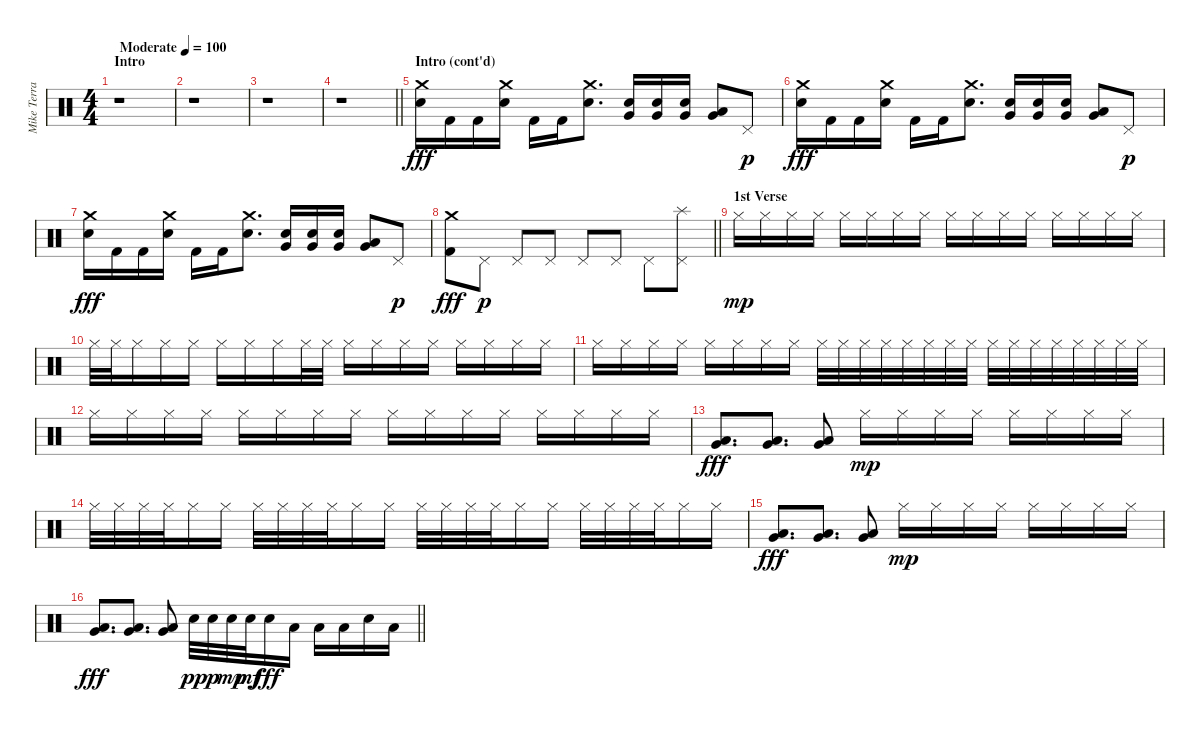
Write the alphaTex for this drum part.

\track ("Mike Terrana" "Mike Terra") {instrument percussion}
\staff {score}
\articulation defaults
\ts (4 4)
\section ("" "Intro")
\tempo (100 "Moderate")
\clef neutral
\ks c
r.1{dy fff} |
r.1 |
r.1 |
\barLineRight lightlight
r.1 |
\section ("" "Intro (cont'd)")
("Crash medium (hit)" "Snare (hit) 2").16 "Kick (hit) 2".16 "Kick (hit) 2".16 ("Crash medium (hit)" "Snare (hit) 2").16 "Kick (hit) 2".16 "Kick (hit) 2".16 ("Crash medium (hit)" "Snare (hit) 2").8{d} ("Snare (hit) 2" "Very Low Tom (hit)").16 ("Snare (hit) 2" "Very Low Tom (hit)").16 ("Snare (hit) 2" "Very Low Tom (hit)").16 ("Very Low Tom (hit)" "Low Floor Tom (hit)").8 "Pedal Hi-Hat (hit)".8{dy p} |
("Crash medium (hit)" "Snare (hit) 2").16{dy fff} "Kick (hit) 2".16 "Kick (hit) 2".16 ("Crash medium (hit)" "Snare (hit) 2").16 "Kick (hit) 2".16 "Kick (hit) 2".16 ("Crash medium (hit)" "Snare (hit) 2").8{d} ("Snare (hit) 2" "Very Low Tom (hit)").16 ("Snare (hit) 2" "Very Low Tom (hit)").16 ("Snare (hit) 2" "Very Low Tom (hit)").16 ("Very Low Tom (hit)" "Low Floor Tom (hit)").8 "Pedal Hi-Hat (hit)".8{dy p} |
("Crash medium (hit)" "Snare (hit) 2").16{dy fff} "Kick (hit) 2".16 "Kick (hit) 2".16 ("Crash medium (hit)" "Snare (hit) 2").16 "Kick (hit) 2".16 "Kick (hit) 2".16 ("Crash medium (hit)" "Snare (hit) 2").8{d} ("Snare (hit) 2" "Very Low Tom (hit)").16 ("Snare (hit) 2" "Very Low Tom (hit)").16 ("Snare (hit) 2" "Very Low Tom (hit)").16 ("Very Low Tom (hit)" "Low Floor Tom (hit)").8 "Pedal Hi-Hat (hit)".8{dy p} |
\barLineRight lightlight
("Crash medium (hit)" "Kick (hit) 2").8{dy fff} "Pedal Hi-Hat (hit)".8{dy p} "Pedal Hi-Hat (hit)".8 "Pedal Hi-Hat (hit)".8 "Pedal Hi-Hat (hit)".8 "Pedal Hi-Hat (hit)".8 "Pedal Hi-Hat (hit)".8 ("Pedal Hi-Hat (hit)" "Splash (hit)").8 |
\section ("" "1st Verse")
"Hi-Hat (closed)".16{dy mp} "Hi-Hat (closed)".16 "Hi-Hat (closed)".16 "Hi-Hat (closed)".16 "Hi-Hat (closed)".16 "Hi-Hat (closed)".16 "Hi-Hat (closed)".16 "Hi-Hat (closed)".16 "Hi-Hat (closed)".16 "Hi-Hat (closed)".16 "Hi-Hat (closed)".16 "Hi-Hat (closed)".16 "Hi-Hat (closed)".16 "Hi-Hat (closed)".16 "Hi-Hat (closed)".16 "Hi-Hat (closed)".16 |
"Hi-Hat (closed)".32 "Hi-Hat (closed)".32 "Hi-Hat (closed)".16 "Hi-Hat (closed)".16 "Hi-Hat (closed)".16 "Hi-Hat (closed)".16 "Hi-Hat (closed)".16 "Hi-Hat (closed)".16 "Hi-Hat (closed)".32 "Hi-Hat (closed)".32 "Hi-Hat (closed)".16 "Hi-Hat (closed)".16 "Hi-Hat (closed)".16 "Hi-Hat (closed)".16 "Hi-Hat (closed)".16 "Hi-Hat (closed)".16 "Hi-Hat (closed)".16 "Hi-Hat (closed)".16 |
"Hi-Hat (closed)".16 "Hi-Hat (closed)".16 "Hi-Hat (closed)".16 "Hi-Hat (closed)".16 "Hi-Hat (closed)".16 "Hi-Hat (closed)".16 "Hi-Hat (closed)".16 "Hi-Hat (closed)".16 "Hi-Hat (closed)".32 "Hi-Hat (closed)".32 "Hi-Hat (closed)".32 "Hi-Hat (closed)".32 "Hi-Hat (closed)".32 "Hi-Hat (closed)".32 "Hi-Hat (closed)".32 "Hi-Hat (closed)".32 "Hi-Hat (closed)".32 "Hi-Hat (closed)".32 "Hi-Hat (closed)".32 "Hi-Hat (closed)".32 "Hi-Hat (closed)".32 "Hi-Hat (closed)".32 "Hi-Hat (closed)".32 "Hi-Hat (closed)".32 |
"Hi-Hat (closed)".16 "Hi-Hat (closed)".16 "Hi-Hat (closed)".16 "Hi-Hat (closed)".16 "Hi-Hat (closed)".16 "Hi-Hat (closed)".16 "Hi-Hat (closed)".16 "Hi-Hat (closed)".16 "Hi-Hat (closed)".16 "Hi-Hat (closed)".16 "Hi-Hat (closed)".16 "Hi-Hat (closed)".16 "Hi-Hat (closed)".16 "Hi-Hat (closed)".16 "Hi-Hat (closed)".16 "Hi-Hat (closed)".16 |
("Low Tom (hit)" "Very Low Tom (hit)").8{d dy fff} ("Low Tom (hit)" "Very Low Tom (hit)").8{d} ("Low Tom (hit)" "Very Low Tom (hit)").8 "Hi-Hat (closed)".16{dy mp} "Hi-Hat (closed)".16 "Hi-Hat (closed)".16 "Hi-Hat (closed)".16 "Hi-Hat (closed)".16 "Hi-Hat (closed)".16 "Hi-Hat (closed)".16 "Hi-Hat (closed)".16 |
"Hi-Hat (closed)".32 "Hi-Hat (closed)".32 "Hi-Hat (closed)".32 "Hi-Hat (closed)".32 "Hi-Hat (closed)".16 "Hi-Hat (closed)".16 "Hi-Hat (closed)".32 "Hi-Hat (closed)".32 "Hi-Hat (closed)".32 "Hi-Hat (closed)".32 "Hi-Hat (closed)".16 "Hi-Hat (closed)".16 "Hi-Hat (closed)".32 "Hi-Hat (closed)".32 "Hi-Hat (closed)".32 "Hi-Hat (closed)".32 "Hi-Hat (closed)".16 "Hi-Hat (closed)".16 "Hi-Hat (closed)".32 "Hi-Hat (closed)".32 "Hi-Hat (closed)".32 "Hi-Hat (closed)".32 "Hi-Hat (closed)".16 "Hi-Hat (closed)".16 |
("Low Tom (hit)" "Very Low Tom (hit)").8{d dy fff} ("Low Tom (hit)" "Very Low Tom (hit)").8{d} ("Low Tom (hit)" "Very Low Tom (hit)").8 "Hi-Hat (closed)".16{dy mp} "Hi-Hat (closed)".16 "Hi-Hat (closed)".16 "Hi-Hat (closed)".16 "Hi-Hat (closed)".16 "Hi-Hat (closed)".16 "Hi-Hat (closed)".16 "Hi-Hat (closed)".16 |
\barLineRight lightlight
("Low Tom (hit)" "Very Low Tom (hit)").8{d dy fff} ("Low Tom (hit)" "Very Low Tom (hit)").8{d} ("Low Tom (hit)" "Very Low Tom (hit)").8 "Snare (hit) 2".32{dy pp} "Snare (hit) 2".32{dy p} "Snare (hit) 2".32{dy mp} "Snare (hit) 2".32{dy mf} "Snare (hit) 2".16{dy fff} "Low Tom (hit)".16 "Low Tom (hit)".16 "Low Tom (hit)".16 "Snare (hit) 2".16 "Low Tom (hit)".16
